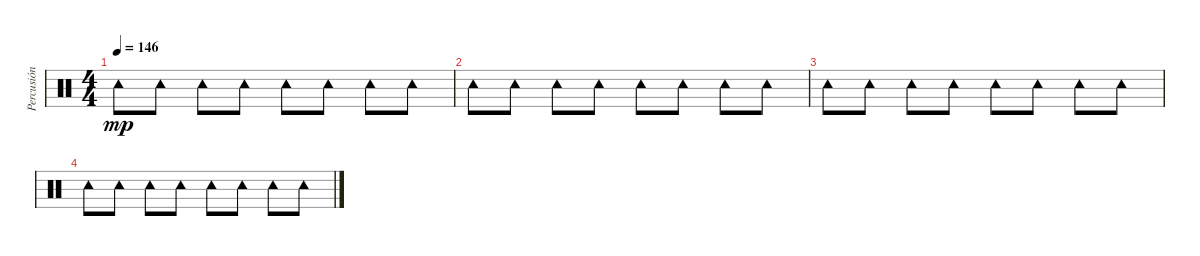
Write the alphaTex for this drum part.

\track ("Percusión" "Percusión") {instrument percussion}
\staff {score}
\articulation defaults
\ts (4 4)
\tempo 146
\clef neutral
\ks c "Tambourine (hit)".8{dy mp} "Tambourine (hit)".8 "Tambourine (hit)".8 "Tambourine (hit)".8 "Tambourine (hit)".8 "Tambourine (hit)".8 "Tambourine (hit)".8 "Tambourine (hit)".8
|
"Tambourine (hit)".8 "Tambourine (hit)".8 "Tambourine (hit)".8 "Tambourine (hit)".8 "Tambourine (hit)".8 "Tambourine (hit)".8 "Tambourine (hit)".8 "Tambourine (hit)".8 |
"Tambourine (hit)".8 "Tambourine (hit)".8 "Tambourine (hit)".8 "Tambourine (hit)".8 "Tambourine (hit)".8 "Tambourine (hit)".8 "Tambourine (hit)".8 "Tambourine (hit)".8 |
"Tambourine (hit)".8 "Tambourine (hit)".8 "Tambourine (hit)".8 "Tambourine (hit)".8 "Tambourine (hit)".8 "Tambourine (hit)".8 "Tambourine (hit)".8 "Tambourine (hit)".8
